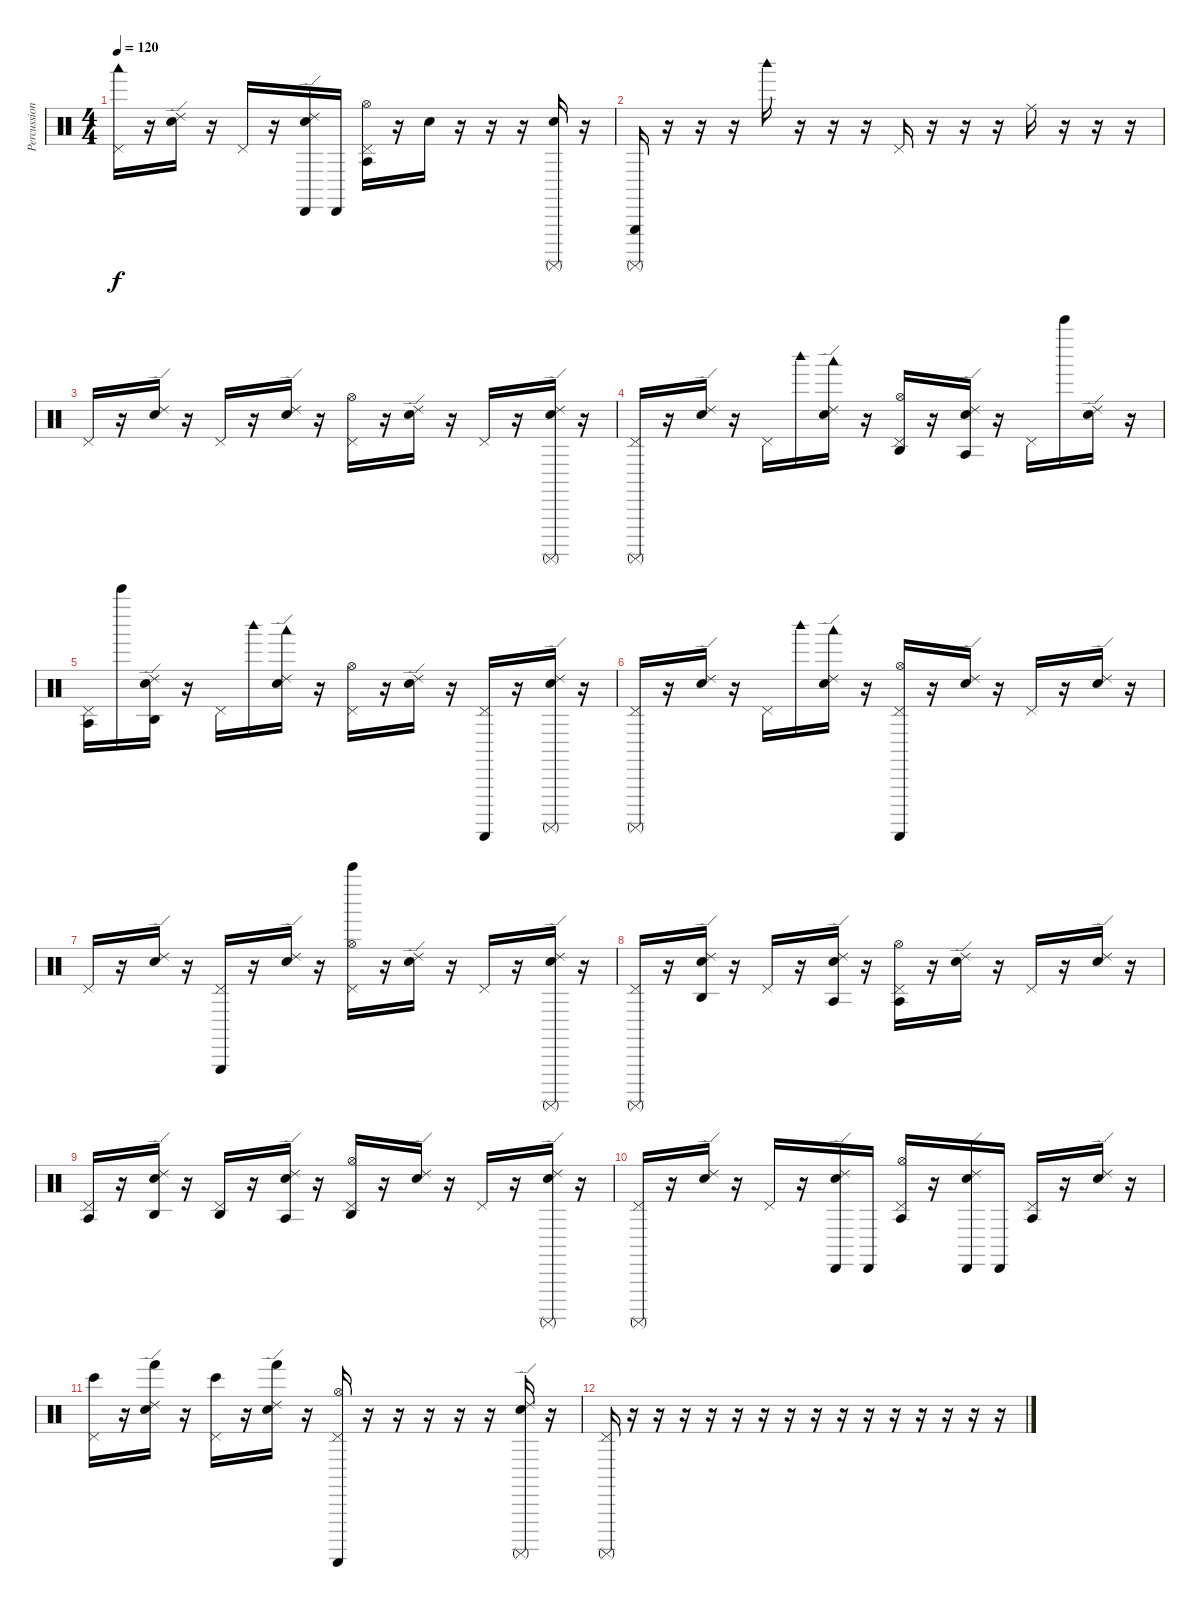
\track ("Percussions" "Percussion") {instrument percussion}
\staff {score}
\articulation defaults
\ts (4 4)
\tempo 120
\clef neutral
\ks c
("Woodblock low (hit)" "Pedal Hi-Hat (hit)").16{dy f} r.16 ("Ride (edge) 2" "Metronome (bell)").16 r.16 "Pedal Hi-Hat (hit)".16 r.16 ("Cabasa (hit)" "Ride (edge) 2" "Metronome (bell)").16 "Cabasa (hit)".16 ("Agogo tow (hit)" "Pedal Hi-Hat (hit)" "Hi-Hat (open)").16 r.16 "Metronome (bell)".16 r.16 r.16 r.16 ("Surdo (mute)" "Metronome (bell)").16 r.16 |
("Triangle (hit)" "Surdo (mute)").16 r.16 r.16 r.16 "Woodblock high (hit)".16 r.16 r.16 r.16 "Pedal Hi-Hat (hit)".16 r.16 r.16 r.16 "Ride (middle)".16 r.16 r.16 r.16 |
"Pedal Hi-Hat (hit)".16 r.16 ("Ride (edge) 2" "Metronome (bell)").16 r.16 "Pedal Hi-Hat (hit)".16 r.16 ("Ride (edge) 2" "Metronome (bell)").16 r.16 ("Pedal Hi-Hat (hit)" "Hi-Hat (open)").16 r.16 ("Ride (edge) 2" "Metronome (bell)").16 r.16 "Pedal Hi-Hat (hit)".16 r.16 ("Surdo (mute)" "Ride (edge) 2" "Metronome (bell)").16 r.16 |
("Surdo (mute)" "Pedal Hi-Hat (hit)").16 r.16 ("Ride (edge) 2" "Metronome (bell)").16 r.16 "Pedal Hi-Hat (hit)".16 "Woodblock high (hit)".16 ("Woodblock low (hit)" "Ride (edge) 2" "Metronome (bell)").16 r.16 ("Agogo high (hit)" "Pedal Hi-Hat (hit)" "Hi-Hat (open)").16 r.16 ("Agogo tow (hit)" "Ride (edge) 2" "Metronome (bell)").16 r.16 "Pedal Hi-Hat (hit)".16 "Bell Tree (hit)".16 ("Ride (edge) 2" "Metronome (bell)").16 r.16 |
("Agogo tow (hit)" "Pedal Hi-Hat (hit)").16 "Bell Tree (hit)".16 ("Agogo high (hit)" "Ride (edge) 2" "Metronome (bell)").16 r.16 "Pedal Hi-Hat (hit)".16 "Woodblock high (hit)".16 ("Woodblock low (hit)" "Ride (edge) 2" "Metronome (bell)").16 r.16 ("Pedal Hi-Hat (hit)" "Hi-Hat (open)").16 r.16 ("Ride (edge) 2" "Metronome (bell)").16 r.16 ("Guiro (scrap-return)" "Pedal Hi-Hat (hit)").16 r.16 ("Surdo (mute)" "Ride (edge) 2" "Metronome (bell)").16 r.16 |
("Surdo (mute)" "Pedal Hi-Hat (hit)").16 r.16 ("Ride (edge) 2" "Metronome (bell)").16 r.16 "Pedal Hi-Hat (hit)".16 "Woodblock high (hit)".16 ("Woodblock low (hit)" "Ride (edge) 2" "Metronome (bell)").16 r.16 ("Guiro (scrap-return)" "Pedal Hi-Hat (hit)" "Hi-Hat (open)").16 r.16 ("Ride (edge) 2" "Metronome (bell)").16 r.16 "Pedal Hi-Hat (hit)".16 r.16 ("Ride (edge) 2" "Metronome (bell)").16 r.16 |
"Pedal Hi-Hat (hit)".16 r.16 ("Ride (edge) 2" "Metronome (bell)").16 r.16 ("Triangle (hit)" "Pedal Hi-Hat (hit)").16 r.16 ("Ride (edge) 2" "Metronome (bell)").16 r.16 ("Bell Tree (hit)" "Pedal Hi-Hat (hit)" "Hi-Hat (open)").16 r.16 ("Ride (edge) 2" "Metronome (bell)").16 r.16 "Pedal Hi-Hat (hit)".16 r.16 ("Surdo (mute)" "Ride (edge) 2" "Metronome (bell)").16 r.16 |
("Surdo (mute)" "Pedal Hi-Hat (hit)").16 r.16 ("Agogo high (hit)" "Ride (edge) 2" "Metronome (bell)").16 r.16 "Pedal Hi-Hat (hit)".16 r.16 ("Agogo tow (hit)" "Ride (edge) 2" "Metronome (bell)").16 r.16 ("Agogo tow (hit)" "Pedal Hi-Hat (hit)" "Hi-Hat (open)").16 r.16 ("Ride (edge) 2" "Metronome (bell)").16 r.16 "Pedal Hi-Hat (hit)".16 r.16 ("Ride (edge) 2" "Metronome (bell)").16 r.16 |
("Agogo tow (hit)" "Pedal Hi-Hat (hit)").16 r.16 ("Agogo high (hit)" "Ride (edge) 2" "Metronome (bell)").16 r.16 ("Agogo high (hit)" "Pedal Hi-Hat (hit)").16 r.16 ("Agogo tow (hit)" "Ride (edge) 2" "Metronome (bell)").16 r.16 ("Agogo high (hit)" "Pedal Hi-Hat (hit)" "Hi-Hat (open)").16 r.16 ("Ride (edge) 2" "Metronome (bell)").16 r.16 "Pedal Hi-Hat (hit)".16 r.16 ("Surdo (mute)" "Ride (edge) 2" "Metronome (bell)").16 r.16 |
("Surdo (mute)" "Pedal Hi-Hat (hit)").16 r.16 ("Ride (edge) 2" "Metronome (bell)").16 r.16 "Pedal Hi-Hat (hit)".16 r.16 ("Cabasa (hit)" "Ride (edge) 2" "Metronome (bell)").16 "Cabasa (hit)".16 ("Agogo tow (hit)" "Pedal Hi-Hat (hit)" "Hi-Hat (open)").16 r.16 ("Cabasa (hit)" "Ride (edge) 2" "Metronome (bell)").16 "Cabasa (hit)".16 ("Agogo tow (hit)" "Pedal Hi-Hat (hit)").16 r.16 ("Ride (edge) 2" "Metronome (bell)").16 r.16 |
("Bongo High (hit)" "Pedal Hi-Hat (hit)").16 r.16 ("Hand (hit)" "Ride (edge) 2" "Metronome (bell)").16 r.16 ("Bongo High (hit)" "Pedal Hi-Hat (hit)").16 r.16 ("Hand (hit)" "Ride (edge) 2" "Metronome (bell)").16 r.16 ("Guiro (scrap-return)" "Pedal Hi-Hat (hit)" "Hi-Hat (open)").16 r.16 r.16 r.16 r.16 r.16 ("Surdo (mute)" "Ride (edge) 2" "Metronome (bell)").16 r.16 |
("Surdo (mute)" "Pedal Hi-Hat (hit)").16 r.16 r.16 r.16 r.16 r.16 r.16 r.16 r.16 r.16 r.16 r.16 r.16 r.16 r.16 r.16
